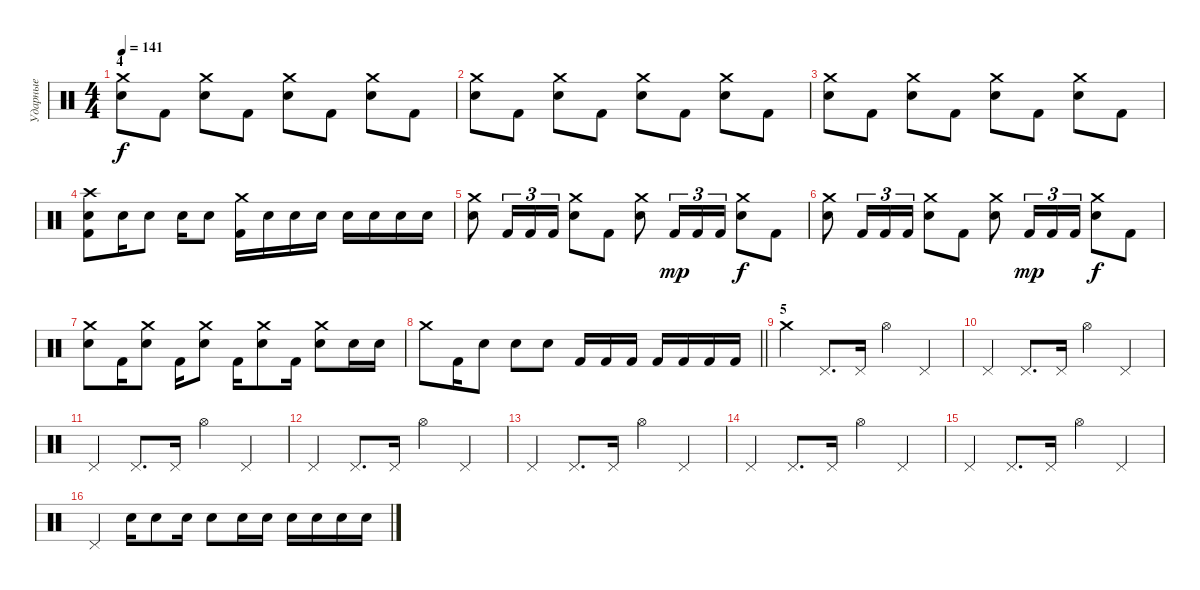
\track ("Ударные" "Ударные") {instrument percussion}
\staff {score}
\articulation defaults
\ts (4 4)
\section ("" "4")
\tempo 141
\clef neutral
\ks c
("Crash medium (hit)" "Snare (hit) 2").8{dy f} "Kick (hit) 2".8 ("Crash medium (hit)" "Snare (hit) 2").8 "Kick (hit) 2".8 ("Crash medium (hit)" "Snare (hit) 2").8 "Kick (hit) 2".8 ("Crash medium (hit)" "Snare (hit) 2").8 "Kick (hit) 2".8 |
("Crash medium (hit)" "Snare (hit) 2").8 "Kick (hit) 2".8 ("Crash medium (hit)" "Snare (hit) 2").8 "Kick (hit) 2".8 ("Crash medium (hit)" "Snare (hit) 2").8 "Kick (hit) 2".8 ("Crash medium (hit)" "Snare (hit) 2").8 "Kick (hit) 2".8 |
("Crash medium (hit)" "Snare (hit) 2").8 "Kick (hit) 2".8 ("Crash medium (hit)" "Snare (hit) 2").8 "Kick (hit) 2".8 ("Crash medium (hit)" "Snare (hit) 2").8 "Kick (hit) 2".8 ("Crash medium (hit)" "Snare (hit) 2").8 "Kick (hit) 2".8 |
("Crash high (hit)" "Snare (hit) 2" "Kick (hit) 2").8 "Snare (hit) 2".16 "Snare (hit) 2".8 "Snare (hit) 2".16 "Snare (hit) 2".8 ("Crash medium (hit)" "Kick (hit) 2").16 "Snare (hit) 2".16 "Snare (hit) 2".16 "Snare (hit) 2".16 "Snare (hit) 2".16 "Snare (hit) 2".16 "Snare (hit) 2".16 "Snare (hit) 2".16 |
("Crash medium (hit)" "Snare (hit) 2").8 "Kick (hit) 2".16{tu (3 2)} "Kick (hit) 2".16{tu (3 2)} "Kick (hit) 2".16{tu (3 2)} ("Crash medium (hit)" "Snare (hit) 2").8 "Kick (hit) 2".8 ("Crash medium (hit)" "Snare (hit) 2").8 "Kick (hit) 2".16{tu (3 2) dy mp} "Kick (hit) 2".16{tu (3 2)} "Kick (hit) 2".16{tu (3 2)} ("Crash medium (hit)" "Snare (hit) 2").8{dy f} "Kick (hit) 2".8 |
("Crash medium (hit)" "Snare (hit) 2").8 "Kick (hit) 2".16{tu (3 2)} "Kick (hit) 2".16{tu (3 2)} "Kick (hit) 2".16{tu (3 2)} ("Crash medium (hit)" "Snare (hit) 2").8 "Kick (hit) 2".8 ("Crash medium (hit)" "Snare (hit) 2").8 "Kick (hit) 2".16{tu (3 2) dy mp} "Kick (hit) 2".16{tu (3 2)} "Kick (hit) 2".16{tu (3 2)} ("Crash medium (hit)" "Snare (hit) 2").8{dy f} "Kick (hit) 2".8 |
("Crash medium (hit)" "Snare (hit) 2").8 "Kick (hit) 2".16 ("Crash medium (hit)" "Snare (hit) 2").8 "Kick (hit) 2".16 ("Crash medium (hit)" "Snare (hit) 2").8 "Kick (hit) 2".16 ("Crash medium (hit)" "Snare (hit) 2").8 "Kick (hit) 2".16 ("Crash medium (hit)" "Snare (hit) 2").8 "Snare (hit) 2".16 "Snare (hit) 2".16 |
\barLineRight lightlight "Crash medium (hit)".8 "Kick (hit) 2".16 "Snare (hit) 2".8 "Snare (hit) 2".8 "Snare (hit) 2".8 "Kick (hit) 2".16 "Kick (hit) 2".16 "Kick (hit) 2".16 "Kick (hit) 2".16 "Kick (hit) 2".16 "Kick (hit) 2".16 "Kick (hit) 2".16
|
\section ("" "5")
"Crash medium (hit)".4 "Pedal Hi-Hat (hit)".8{d} "Pedal Hi-Hat (hit)".16 "Hi-Hat (open)".4 "Pedal Hi-Hat (hit)".4 |
"Pedal Hi-Hat (hit)".4 "Pedal Hi-Hat (hit)".8{d} "Pedal Hi-Hat (hit)".16 "Hi-Hat (open)".4 "Pedal Hi-Hat (hit)".4 |
"Pedal Hi-Hat (hit)".4 "Pedal Hi-Hat (hit)".8{d} "Pedal Hi-Hat (hit)".16 "Hi-Hat (open)".4 "Pedal Hi-Hat (hit)".4 |
"Pedal Hi-Hat (hit)".4 "Pedal Hi-Hat (hit)".8{d} "Pedal Hi-Hat (hit)".16 "Hi-Hat (open)".4 "Pedal Hi-Hat (hit)".4 |
"Pedal Hi-Hat (hit)".4 "Pedal Hi-Hat (hit)".8{d} "Pedal Hi-Hat (hit)".16 "Hi-Hat (open)".4 "Pedal Hi-Hat (hit)".4 |
"Pedal Hi-Hat (hit)".4 "Pedal Hi-Hat (hit)".8{d} "Pedal Hi-Hat (hit)".16 "Hi-Hat (open)".4 "Pedal Hi-Hat (hit)".4 |
"Pedal Hi-Hat (hit)".4 "Pedal Hi-Hat (hit)".8{d} "Pedal Hi-Hat (hit)".16 "Hi-Hat (open)".4 "Pedal Hi-Hat (hit)".4 |
"Pedal Hi-Hat (hit)".4 "Snare (hit) 2".16 "Snare (hit) 2".8 "Snare (hit) 2".16 "Snare (hit) 2".8 "Snare (hit) 2".16 "Snare (hit) 2".16 "Snare (hit) 2".16 "Snare (hit) 2".16 "Snare (hit) 2".16 "Snare (hit) 2".16
